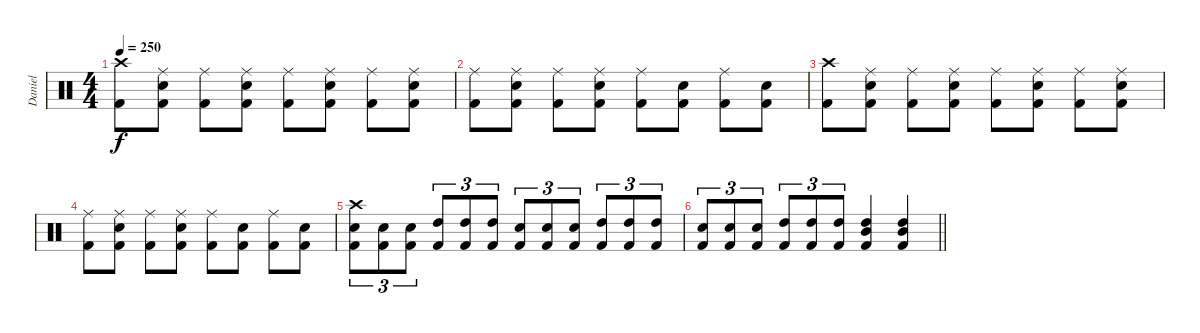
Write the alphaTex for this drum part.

\track ("Daniel" "Daniel") {instrument percussion}
\staff {score}
\articulation defaults
\ts (4 4)
\tempo 250
\clef neutral
\ks c
("Crash high (hit)" "Kick (hit) 2").8{dy f} ("Ride (middle)" "Snare (hit) 2" "Kick (hit) 2").8 ("Ride (middle)" "Kick (hit) 2").8 ("Ride (middle)" "Snare (hit) 2" "Kick (hit) 2").8 ("Ride (middle)" "Kick (hit) 2").8 ("Ride (middle)" "Snare (hit) 2" "Kick (hit) 2").8 ("Ride (middle)" "Kick (hit) 2").8 ("Ride (middle)" "Snare (hit) 2" "Kick (hit) 2").8 |
("Ride (middle)" "Kick (hit) 2").8 ("Ride (middle)" "Snare (hit) 2" "Kick (hit) 2").8 ("Ride (middle)" "Kick (hit) 2").8 ("Ride (middle)" "Snare (hit) 2" "Kick (hit) 2").8 ("Ride (middle)" "Kick (hit) 2").8 ("Snare (hit) 2" "Kick (hit) 2").8 ("Ride (middle)" "Kick (hit) 2").8 ("Snare (hit) 2" "Kick (hit) 2").8 |
("Crash high (hit)" "Kick (hit) 2").8 ("Ride (middle)" "Snare (hit) 2" "Kick (hit) 2").8 ("Ride (middle)" "Kick (hit) 2").8 ("Ride (middle)" "Snare (hit) 2" "Kick (hit) 2").8 ("Ride (middle)" "Kick (hit) 2").8 ("Ride (middle)" "Snare (hit) 2" "Kick (hit) 2").8 ("Ride (middle)" "Kick (hit) 2").8 ("Ride (middle)" "Snare (hit) 2" "Kick (hit) 2").8 |
("Ride (middle)" "Kick (hit) 2").8 ("Ride (middle)" "Snare (hit) 2" "Kick (hit) 2").8 ("Ride (middle)" "Kick (hit) 2").8 ("Ride (middle)" "Snare (hit) 2" "Kick (hit) 2").8 ("Ride (middle)" "Kick (hit) 2").8 ("Snare (hit) 2" "Kick (hit) 2").8 ("Ride (middle)" "Kick (hit) 2").8 ("Snare (hit) 2" "Kick (hit) 2").8 |
("Crash high (hit)" "Snare (hit) 2" "Kick (hit) 2").8{tu (3 2)} ("Snare (hit) 2" "Kick (hit) 2").8{tu (3 2)} ("Snare (hit) 2" "Kick (hit) 2").8{tu (3 2)} ("High Tom (hit)" "Kick (hit) 2").8{tu (3 2)} ("High Tom (hit)" "Kick (hit) 2").8{tu (3 2)} ("High Tom (hit)" "Kick (hit) 2").8{tu (3 2)} ("Snare (hit) 2" "Kick (hit) 2").8{tu (3 2)} ("Snare (hit) 2" "Kick (hit) 2").8{tu (3 2)} ("Snare (hit) 2" "Kick (hit) 2").8{tu (3 2)} ("High Tom (hit)" "Kick (hit) 2").8{tu (3 2)} ("High Tom (hit)" "Kick (hit) 2").8{tu (3 2)} ("High Tom (hit)" "Kick (hit) 2").8{tu (3 2)} |
\barLineRight lightlight
("Snare (hit) 2" "Kick (hit) 2").8{tu (3 2)} ("Snare (hit) 2" "Kick (hit) 2").8{tu (3 2)} ("Snare (hit) 2" "Kick (hit) 2").8{tu (3 2)} ("High Tom (hit)" "Kick (hit) 2").8{tu (3 2)} ("High Tom (hit)" "Kick (hit) 2").8{tu (3 2)} ("High Tom (hit)" "Kick (hit) 2").8{tu (3 2)} ("High Tom (hit)" "Mid Tom (hit)" "Kick (hit) 2").4 ("High Tom (hit)" "Mid Tom (hit)" "Kick (hit) 2").4
